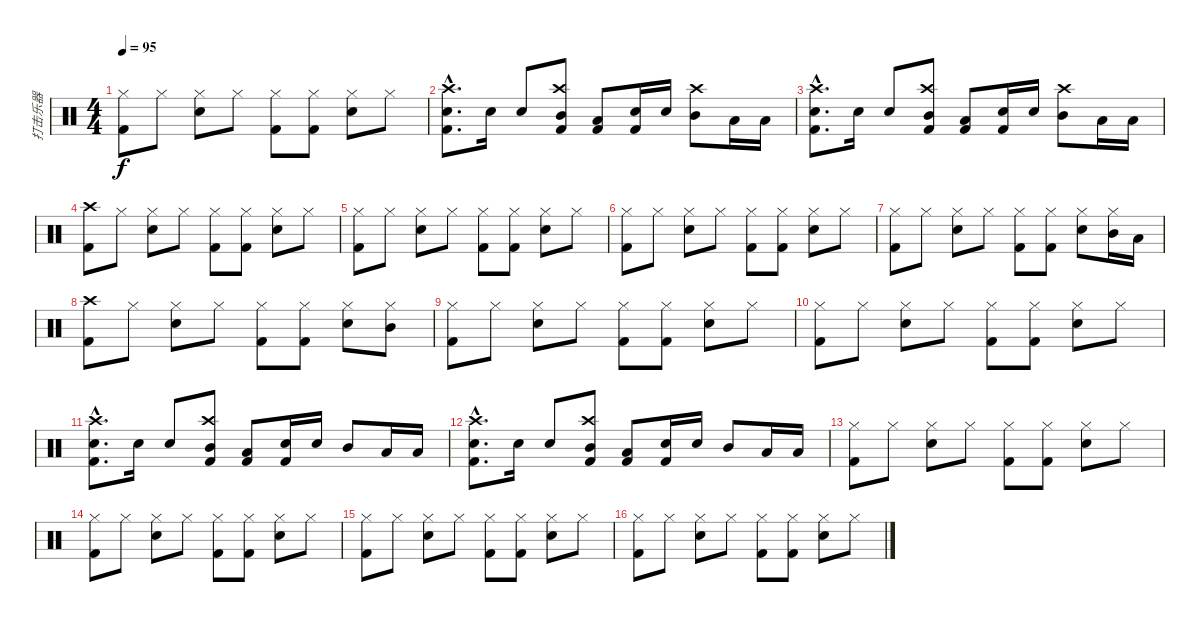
\track ("打击乐器" "打击乐器") {instrument percussion}
\staff {score}
\articulation defaults
\ts (4 4)
\tempo 95
\clef neutral
\ks c
("Hi-Hat (closed)" "Kick (hit) 2").8{dy f} "Hi-Hat (closed)".8 ("Hi-Hat (closed)" "Electric Snare (hit)").8 "Hi-Hat (closed)".8 ("Hi-Hat (closed)" "Kick (hit) 2").8 ("Hi-Hat (closed)" "Kick (hit) 2").8 ("Hi-Hat (closed)" "Electric Snare (hit)").8 "Hi-Hat (closed)".8 |
("Crash high (hit)"{hac} "Electric Snare (hit)"{hac} "Kick (hit) 2"{hac}).8{d} "Electric Snare (hit)".16 "Electric Snare (hit)".8 ("Crash high (hit)" "Mid Tom (hit)" "Kick (hit) 2").8 ("Low Tom (hit)" "Kick (hit) 2").8 ("Electric Snare (hit)" "Kick (hit) 2").16 "Electric Snare (hit)".16 ("Crash high (hit)" "Mid Tom (hit)").8 "Low Tom (hit)".16 "Low Tom (hit)".16 |
("Crash high (hit)"{hac} "Electric Snare (hit)"{hac} "Kick (hit) 2"{hac}).8{d} "Electric Snare (hit)".16 "Electric Snare (hit)".8 ("Crash high (hit)" "Mid Tom (hit)" "Kick (hit) 2").8 ("Low Tom (hit)" "Kick (hit) 2").8 ("Electric Snare (hit)" "Kick (hit) 2").16 "Electric Snare (hit)".16 ("Crash high (hit)" "Mid Tom (hit)").8 "Low Tom (hit)".16 "Low Tom (hit)".16 |
("Crash high (hit)" "Kick (hit) 2").8 "Hi-Hat (closed)".8 ("Hi-Hat (closed)" "Electric Snare (hit)").8 "Hi-Hat (closed)".8 ("Hi-Hat (closed)" "Kick (hit) 2").8 ("Hi-Hat (closed)" "Kick (hit) 2").8 ("Hi-Hat (closed)" "Electric Snare (hit)").8 "Hi-Hat (closed)".8 |
("Hi-Hat (closed)" "Kick (hit) 2").8 "Hi-Hat (closed)".8 ("Hi-Hat (closed)" "Electric Snare (hit)").8 "Hi-Hat (closed)".8 ("Hi-Hat (closed)" "Kick (hit) 2").8 ("Hi-Hat (closed)" "Kick (hit) 2").8 ("Hi-Hat (closed)" "Electric Snare (hit)").8 "Hi-Hat (closed)".8 |
("Hi-Hat (closed)" "Kick (hit) 2").8 "Hi-Hat (closed)".8 ("Hi-Hat (closed)" "Electric Snare (hit)").8 "Hi-Hat (closed)".8 ("Hi-Hat (closed)" "Kick (hit) 2").8 ("Hi-Hat (closed)" "Kick (hit) 2").8 ("Hi-Hat (closed)" "Electric Snare (hit)").8 "Hi-Hat (closed)".8 |
("Hi-Hat (closed)" "Kick (hit) 2").8 "Hi-Hat (closed)".8 ("Hi-Hat (closed)" "Electric Snare (hit)").8 "Hi-Hat (closed)".8 ("Hi-Hat (closed)" "Kick (hit) 2").8 ("Hi-Hat (closed)" "Kick (hit) 2").8 ("Hi-Hat (closed)" "Electric Snare (hit)").8 ("Hi-Hat (closed)" "Mid Tom (hit)").16 "Low Tom (hit)".16 |
("Crash high (hit)" "Kick (hit) 2").8 "Hi-Hat (closed)".8 ("Hi-Hat (closed)" "Electric Snare (hit)").8 "Hi-Hat (closed)".8 ("Hi-Hat (closed)" "Kick (hit) 2").8 ("Hi-Hat (closed)" "Kick (hit) 2").8 ("Hi-Hat (closed)" "Electric Snare (hit)").8 ("Hi-Hat (closed)" "Mid Tom (hit)").8 |
("Hi-Hat (closed)" "Kick (hit) 2").8 "Hi-Hat (closed)".8 ("Hi-Hat (closed)" "Electric Snare (hit)").8 "Hi-Hat (closed)".8 ("Hi-Hat (closed)" "Kick (hit) 2").8 ("Hi-Hat (closed)" "Kick (hit) 2").8 ("Hi-Hat (closed)" "Electric Snare (hit)").8 "Hi-Hat (closed)".8 |
("Hi-Hat (closed)" "Kick (hit) 2").8 "Hi-Hat (closed)".8 ("Hi-Hat (closed)" "Electric Snare (hit)").8 "Hi-Hat (closed)".8 ("Hi-Hat (closed)" "Kick (hit) 2").8 ("Hi-Hat (closed)" "Kick (hit) 2").8 ("Hi-Hat (closed)" "Electric Snare (hit)").8 "Hi-Hat (closed)".8 |
("Crash high (hit)"{hac} "Electric Snare (hit)"{hac} "Kick (hit) 2"{hac}).8{d} "Electric Snare (hit)".16 "Electric Snare (hit)".8 ("Crash high (hit)" "Mid Tom (hit)" "Kick (hit) 2").8 ("Low Tom (hit)" "Kick (hit) 2").8 ("Electric Snare (hit)" "Kick (hit) 2").16 "Electric Snare (hit)".16 "Mid Tom (hit)".8 "Low Tom (hit)".16 "Low Tom (hit)".16 |
("Crash high (hit)"{hac} "Electric Snare (hit)"{hac} "Kick (hit) 2"{hac}).8{d} "Electric Snare (hit)".16 "Electric Snare (hit)".8 ("Crash high (hit)" "Mid Tom (hit)" "Kick (hit) 2").8 ("Low Tom (hit)" "Kick (hit) 2").8 ("Electric Snare (hit)" "Kick (hit) 2").16 "Electric Snare (hit)".16 "Mid Tom (hit)".8 "Low Tom (hit)".16 "Low Tom (hit)".16 |
("Hi-Hat (closed)" "Kick (hit) 2").8 "Hi-Hat (closed)".8 ("Hi-Hat (closed)" "Electric Snare (hit)").8 "Hi-Hat (closed)".8 ("Hi-Hat (closed)" "Kick (hit) 2").8 ("Hi-Hat (closed)" "Kick (hit) 2").8 ("Hi-Hat (closed)" "Electric Snare (hit)").8 "Hi-Hat (closed)".8 |
("Hi-Hat (closed)" "Kick (hit) 2").8 "Hi-Hat (closed)".8 ("Hi-Hat (closed)" "Electric Snare (hit)").8 "Hi-Hat (closed)".8 ("Hi-Hat (closed)" "Kick (hit) 2").8 ("Hi-Hat (closed)" "Kick (hit) 2").8 ("Hi-Hat (closed)" "Electric Snare (hit)").8 "Hi-Hat (closed)".8 |
("Hi-Hat (closed)" "Kick (hit) 2").8 "Hi-Hat (closed)".8 ("Hi-Hat (closed)" "Electric Snare (hit)").8 "Hi-Hat (closed)".8 ("Hi-Hat (closed)" "Kick (hit) 2").8 ("Hi-Hat (closed)" "Kick (hit) 2").8 ("Hi-Hat (closed)" "Electric Snare (hit)").8 "Hi-Hat (closed)".8 |
("Hi-Hat (closed)" "Kick (hit) 2").8 "Hi-Hat (closed)".8 ("Hi-Hat (closed)" "Electric Snare (hit)").8 "Hi-Hat (closed)".8 ("Hi-Hat (closed)" "Kick (hit) 2").8 ("Hi-Hat (closed)" "Kick (hit) 2").8 ("Hi-Hat (closed)" "Electric Snare (hit)").8 "Hi-Hat (closed)".8
